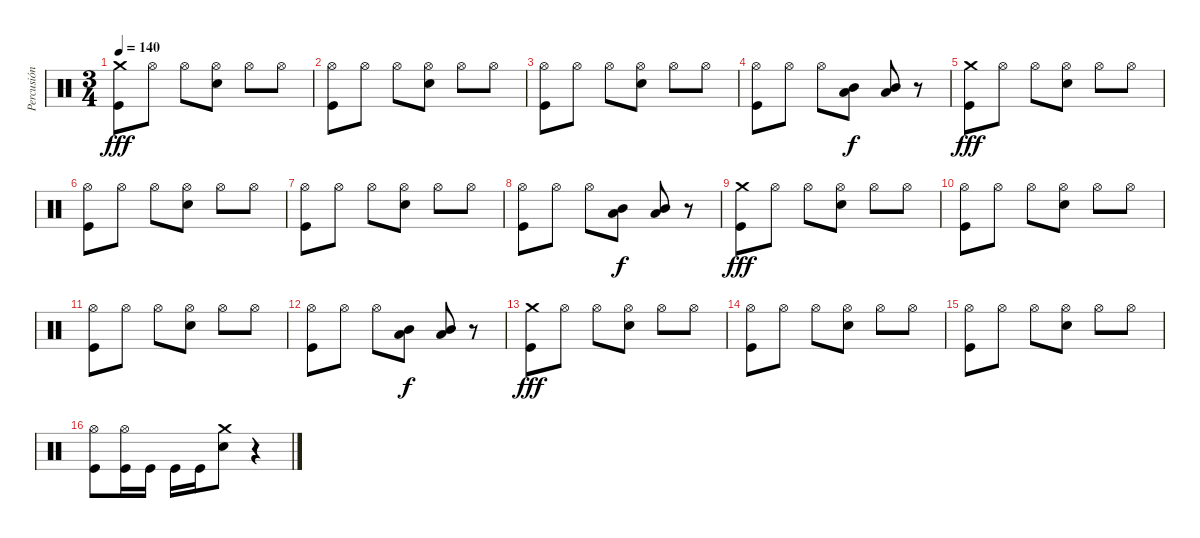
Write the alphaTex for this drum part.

\track ("Percusión" "Percusión") {instrument percussion}
\staff {score}
\articulation defaults
\ts (3 4)
\tempo 140
\clef neutral
\ks c
("Crash medium (hit)" "Kick (hit)").8{dy fff} "Hi-Hat (open)".8 "Hi-Hat (open)".8 ("Hi-Hat (open)" "Snare (hit) 2").8 "Hi-Hat (open)".8 "Hi-Hat (open)".8 |
("Hi-Hat (open)" "Kick (hit)").8 "Hi-Hat (open)".8 "Hi-Hat (open)".8 ("Hi-Hat (open)" "Snare (hit) 2").8 "Hi-Hat (open)".8 "Hi-Hat (open)".8 |
("Hi-Hat (open)" "Kick (hit)").8 "Hi-Hat (open)".8 "Hi-Hat (open)".8 ("Hi-Hat (open)" "Snare (hit) 2").8 "Hi-Hat (open)".8 "Hi-Hat (open)".8 |
("Hi-Hat (open)" "Kick (hit)").8 "Hi-Hat (open)".8 "Hi-Hat (open)".8 ("Low Tom (hit)" "Mid Tom (hit)").8{dy f} ("Low Tom (hit)" "Mid Tom (hit)").8 r.8 |
("Crash medium (hit)" "Kick (hit)").8{dy fff} "Hi-Hat (open)".8 "Hi-Hat (open)".8 ("Hi-Hat (open)" "Snare (hit) 2").8 "Hi-Hat (open)".8 "Hi-Hat (open)".8 |
("Hi-Hat (open)" "Kick (hit)").8 "Hi-Hat (open)".8 "Hi-Hat (open)".8 ("Hi-Hat (open)" "Snare (hit) 2").8 "Hi-Hat (open)".8 "Hi-Hat (open)".8 |
("Hi-Hat (open)" "Kick (hit)").8 "Hi-Hat (open)".8 "Hi-Hat (open)".8 ("Hi-Hat (open)" "Snare (hit) 2").8 "Hi-Hat (open)".8 "Hi-Hat (open)".8 |
("Hi-Hat (open)" "Kick (hit)").8 "Hi-Hat (open)".8 "Hi-Hat (open)".8 ("Low Tom (hit)" "Mid Tom (hit)").8{dy f} ("Low Tom (hit)" "Mid Tom (hit)").8 r.8 |
("Crash medium (hit)" "Kick (hit)").8{dy fff} "Hi-Hat (open)".8 "Hi-Hat (open)".8 ("Hi-Hat (open)" "Snare (hit) 2").8 "Hi-Hat (open)".8 "Hi-Hat (open)".8 |
("Hi-Hat (open)" "Kick (hit)").8 "Hi-Hat (open)".8 "Hi-Hat (open)".8 ("Hi-Hat (open)" "Snare (hit) 2").8 "Hi-Hat (open)".8 "Hi-Hat (open)".8 |
("Hi-Hat (open)" "Kick (hit)").8 "Hi-Hat (open)".8 "Hi-Hat (open)".8 ("Hi-Hat (open)" "Snare (hit) 2").8 "Hi-Hat (open)".8 "Hi-Hat (open)".8 |
("Hi-Hat (open)" "Kick (hit)").8 "Hi-Hat (open)".8 "Hi-Hat (open)".8 ("Low Tom (hit)" "Mid Tom (hit)").8{dy f} ("Low Tom (hit)" "Mid Tom (hit)").8 r.8 |
("Crash medium (hit)" "Kick (hit)").8{dy fff} "Hi-Hat (open)".8 "Hi-Hat (open)".8 ("Hi-Hat (open)" "Snare (hit) 2").8 "Hi-Hat (open)".8 "Hi-Hat (open)".8 |
("Hi-Hat (open)" "Kick (hit)").8 "Hi-Hat (open)".8 "Hi-Hat (open)".8 ("Hi-Hat (open)" "Snare (hit) 2").8 "Hi-Hat (open)".8 "Hi-Hat (open)".8 |
("Hi-Hat (open)" "Kick (hit)").8 "Hi-Hat (open)".8 "Hi-Hat (open)".8 ("Hi-Hat (open)" "Snare (hit) 2").8 "Hi-Hat (open)".8 "Hi-Hat (open)".8 |
("Hi-Hat (open)" "Kick (hit)").8 ("Hi-Hat (open)" "Kick (hit)").16 "Kick (hit)".16 "Kick (hit)".16 "Kick (hit)".16 ("Crash medium (hit)" "Snare (hit) 2").8 r.4
